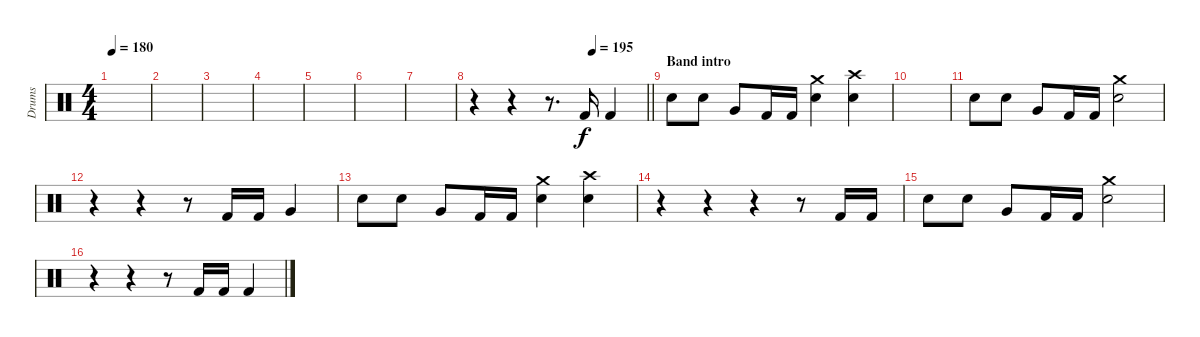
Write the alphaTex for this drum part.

\track ("Drums" "Drums") {instrument percussion}
\staff {score}
\articulation defaults
\ts (4 4)
\tempo 180
\clef neutral
\ks c
|
|
|
|
|
|
|
\tempo (195 0.6875)
\barLineRight lightlight
r.4 r.4 r.8{d} "Kick (hit) 2".16 "Kick (hit) 2".4 |
\section ("" "Band intro")
"Electric Snare (hit)".8 "Electric Snare (hit)".8 "Very Low Tom (hit)".8 "Kick (hit) 2".16 "Kick (hit) 2".16 ("Crash medium (hit)" "Electric Snare (hit)").4 ("Crash high (hit)" "Electric Snare (hit)").4 |
|
"Electric Snare (hit)".8 "Electric Snare (hit)".8 "Very Low Tom (hit)".8 "Kick (hit) 2".16 "Kick (hit) 2".16 ("Crash medium (hit)" "Electric Snare (hit)").2 |
r.4 r.4 r.8 "Kick (hit) 2".16 "Kick (hit) 2".16 "Very Low Tom (hit)".4 |
"Electric Snare (hit)".8 "Electric Snare (hit)".8 "Very Low Tom (hit)".8 "Kick (hit) 2".16 "Kick (hit) 2".16 ("Crash medium (hit)" "Electric Snare (hit)").4 ("Crash high (hit)" "Electric Snare (hit)").4 |
r.4 r.4 r.4 r.8 "Kick (hit) 2".16 "Kick (hit) 2".16 |
"Electric Snare (hit)".8 "Electric Snare (hit)".8 "Very Low Tom (hit)".8 "Kick (hit) 2".16 "Kick (hit) 2".16 ("Crash medium (hit)" "Electric Snare (hit)").2 |
r.4 r.4 r.8 "Kick (hit) 2".16 "Kick (hit) 2".16 "Kick (hit) 2".4
